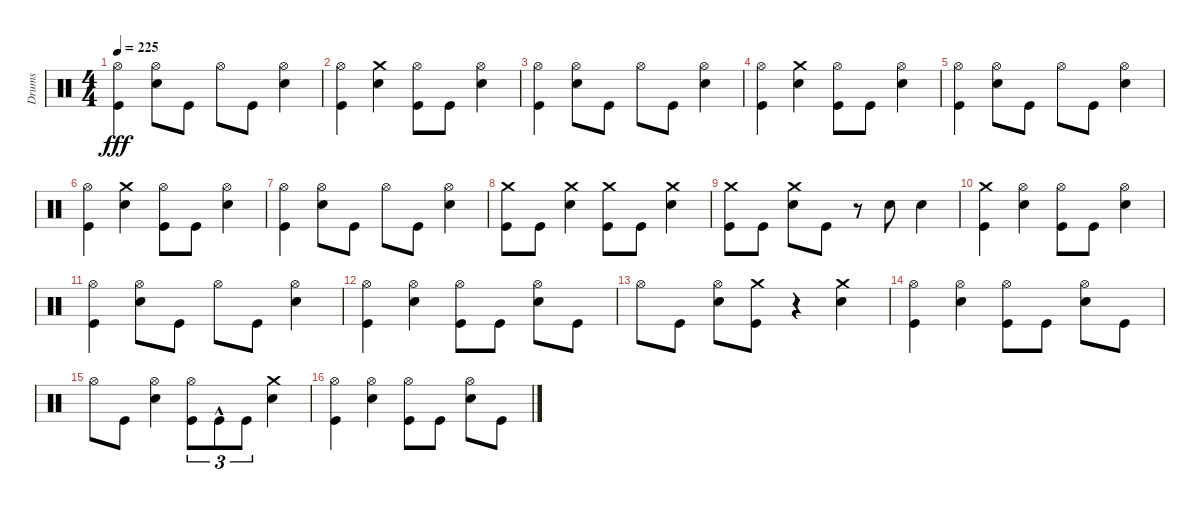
\track ("Drums" "Drums") {instrument percussion}
\staff {score}
\articulation defaults
\ts (4 4)
\tempo 225
\clef neutral
\ks c
("Kick (hit)" "Hi-Hat (open)").4{dy fff} ("Hi-Hat (open)" "Snare (hit) 2").8 "Kick (hit)".8 "Hi-Hat (open)".8 "Kick (hit)".8 ("Snare (hit) 2" "Hi-Hat (open)").4 |
("Kick (hit)" "Hi-Hat (open)").4 ("Snare (hit) 2" "Crash medium (hit)").4 ("Kick (hit)" "Hi-Hat (open)").8 "Kick (hit)".8 ("Snare (hit) 2" "Hi-Hat (open)").4 |
("Kick (hit)" "Hi-Hat (open)").4 ("Snare (hit) 2" "Hi-Hat (open)").8 "Kick (hit)".8 "Hi-Hat (open)".8 "Kick (hit)".8 ("Snare (hit) 2" "Hi-Hat (open)").4 |
("Kick (hit)" "Hi-Hat (open)").4 ("Crash medium (hit)" "Snare (hit) 2").4 ("Kick (hit)" "Hi-Hat (open)").8 "Kick (hit)".8 ("Snare (hit) 2" "Hi-Hat (open)").4 |
("Kick (hit)" "Hi-Hat (open)").4 ("Snare (hit) 2" "Hi-Hat (open)").8 "Kick (hit)".8 "Hi-Hat (open)".8 "Kick (hit)".8 ("Snare (hit) 2" "Hi-Hat (open)").4 |
("Kick (hit)" "Hi-Hat (open)").4 ("Snare (hit) 2" "Crash medium (hit)").4 ("Kick (hit)" "Hi-Hat (open)").8 "Kick (hit)".8 ("Snare (hit) 2" "Hi-Hat (open)").4 |
("Kick (hit)" "Hi-Hat (open)").4 ("Snare (hit) 2" "Hi-Hat (open)").8 "Kick (hit)".8 "Hi-Hat (open)".8 "Kick (hit)".8 ("Snare (hit) 2" "Hi-Hat (open)").4 |
("Kick (hit)" "Crash medium (hit)").8 "Kick (hit)".8 ("Snare (hit) 2" "Crash medium (hit)").4 ("Kick (hit)" "Crash medium (hit)").8 "Kick (hit)".8 ("Snare (hit) 2" "Crash medium (hit)").4 |
("Kick (hit)" "Crash medium (hit)").8 "Kick (hit)".8 ("Snare (hit) 2" "Crash medium (hit)").8 "Kick (hit)".8 r.8 "Snare (hit) 2".8 "Snare (hit) 2".4 |
("Crash medium (hit)" "Kick (hit)").4 ("Snare (hit) 2" "Hi-Hat (open)").4 ("Kick (hit)" "Hi-Hat (open)").8 "Kick (hit)".8 ("Snare (hit) 2" "Hi-Hat (open)").4 |
("Kick (hit)" "Hi-Hat (open)").4 ("Snare (hit) 2" "Hi-Hat (open)").8 "Kick (hit)".8 "Hi-Hat (open)".8 "Kick (hit)".8 ("Snare (hit) 2" "Hi-Hat (open)").4 |
("Kick (hit)" "Hi-Hat (open)").4 ("Snare (hit) 2" "Hi-Hat (open)").4 ("Kick (hit)" "Hi-Hat (open)").8 "Kick (hit)".8 ("Snare (hit) 2" "Hi-Hat (open)").8 "Kick (hit)".8 |
"Hi-Hat (open)".8 "Kick (hit)".8 ("Snare (hit) 2" "Hi-Hat (open)").8 ("Crash medium (hit)" "Kick (hit)").8 r.4 ("Snare (hit) 2" "Crash medium (hit)").4 |
("Kick (hit)" "Hi-Hat (open)").4 ("Snare (hit) 2" "Hi-Hat (open)").4 ("Kick (hit)" "Hi-Hat (open)").8 "Kick (hit)".8 ("Snare (hit) 2" "Hi-Hat (open)").8 "Kick (hit)".8 |
"Hi-Hat (open)".8 "Kick (hit)".8 ("Snare (hit) 2" "Hi-Hat (open)").4 ("Kick (hit)" "Hi-Hat (open)").8{tu (3 2)} "Kick (hit)"{hac}.8{tu (3 2)} "Kick (hit)".8{tu (3 2)} ("Crash medium (hit)" "Snare (hit) 2").4 |
("Kick (hit)" "Hi-Hat (open)").4 ("Snare (hit) 2" "Hi-Hat (open)").4 ("Kick (hit)" "Hi-Hat (open)").8 "Kick (hit)".8 ("Snare (hit) 2" "Hi-Hat (open)").8 "Kick (hit)".8
